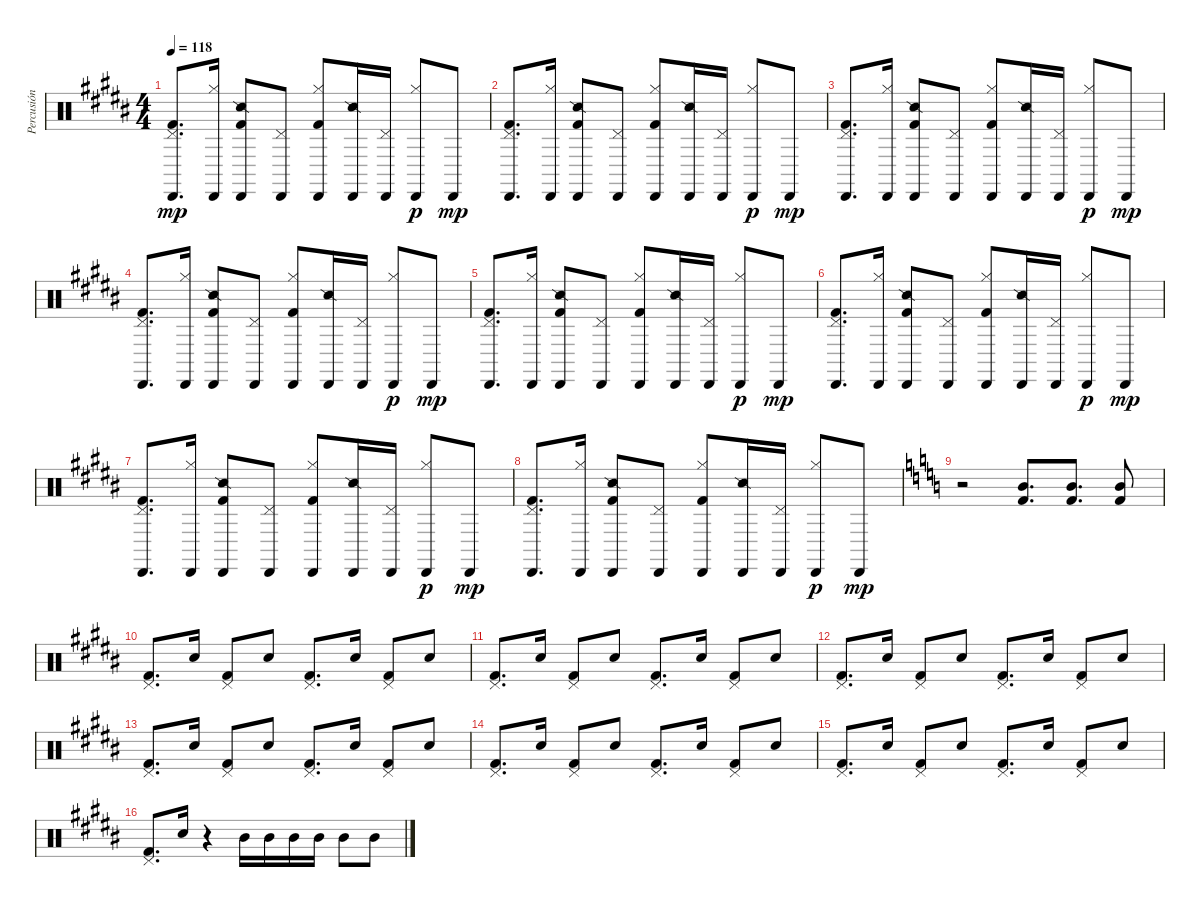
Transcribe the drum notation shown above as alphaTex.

\track ("Percusión" "Percusión") {instrument percussion}
\staff {score}
\articulation defaults
\ts (4 4)
\tempo 118
\clef neutral
\ks b
("Cabasa (hit)" "Pedal Hi-Hat (hit)" "Kick (hit) 2").8{d dy mp} ("Cabasa (hit)" "Hi-Hat (closed)").16 ("Cabasa (hit)" "Snare (side stick) 2" "Kick (hit) 2").8 ("Cabasa (hit)" "Pedal Hi-Hat (hit)").8 ("Cabasa (hit)" "Hi-Hat (closed)" "Kick (hit) 2").8 ("Cabasa (hit)" "Snare (side stick) 2").16 ("Cabasa (hit)" "Pedal Hi-Hat (hit)").16 ("Cabasa (hit)" "Hi-Hat (closed)").8{dy p} "Cabasa (hit)".8{dy mp} |
("Cabasa (hit)" "Pedal Hi-Hat (hit)" "Kick (hit) 2").8{d} ("Cabasa (hit)" "Hi-Hat (closed)").16 ("Cabasa (hit)" "Snare (side stick) 2" "Kick (hit) 2").8 ("Cabasa (hit)" "Pedal Hi-Hat (hit)").8 ("Cabasa (hit)" "Hi-Hat (closed)" "Kick (hit) 2").8 ("Cabasa (hit)" "Snare (side stick) 2").16 ("Cabasa (hit)" "Pedal Hi-Hat (hit)").16 ("Cabasa (hit)" "Hi-Hat (closed)").8{dy p} "Cabasa (hit)".8{dy mp} |
("Cabasa (hit)" "Pedal Hi-Hat (hit)" "Kick (hit) 2").8{d} ("Cabasa (hit)" "Hi-Hat (closed)").16 ("Cabasa (hit)" "Snare (side stick) 2" "Kick (hit) 2").8 ("Cabasa (hit)" "Pedal Hi-Hat (hit)").8 ("Cabasa (hit)" "Hi-Hat (closed)" "Kick (hit) 2").8 ("Cabasa (hit)" "Snare (side stick) 2").16 ("Cabasa (hit)" "Pedal Hi-Hat (hit)").16 ("Cabasa (hit)" "Hi-Hat (closed)").8{dy p} "Cabasa (hit)".8{dy mp} |
("Cabasa (hit)" "Pedal Hi-Hat (hit)" "Kick (hit) 2").8{d} ("Cabasa (hit)" "Hi-Hat (closed)").16 ("Cabasa (hit)" "Snare (side stick) 2" "Kick (hit) 2").8 ("Cabasa (hit)" "Pedal Hi-Hat (hit)").8 ("Cabasa (hit)" "Hi-Hat (closed)" "Kick (hit) 2").8 ("Cabasa (hit)" "Snare (side stick) 2").16 ("Cabasa (hit)" "Pedal Hi-Hat (hit)").16 ("Cabasa (hit)" "Hi-Hat (closed)").8{dy p} "Cabasa (hit)".8{dy mp} |
("Cabasa (hit)" "Pedal Hi-Hat (hit)" "Kick (hit) 2").8{d} ("Cabasa (hit)" "Hi-Hat (closed)").16 ("Cabasa (hit)" "Snare (side stick) 2" "Kick (hit) 2").8 ("Cabasa (hit)" "Pedal Hi-Hat (hit)").8 ("Cabasa (hit)" "Hi-Hat (closed)" "Kick (hit) 2").8 ("Cabasa (hit)" "Snare (side stick) 2").16 ("Cabasa (hit)" "Pedal Hi-Hat (hit)").16 ("Cabasa (hit)" "Hi-Hat (closed)").8{dy p} "Cabasa (hit)".8{dy mp} |
("Cabasa (hit)" "Pedal Hi-Hat (hit)" "Kick (hit) 2").8{d} ("Cabasa (hit)" "Hi-Hat (closed)").16 ("Cabasa (hit)" "Snare (side stick) 2" "Kick (hit) 2").8 ("Cabasa (hit)" "Pedal Hi-Hat (hit)").8 ("Cabasa (hit)" "Hi-Hat (closed)" "Kick (hit) 2").8 ("Cabasa (hit)" "Snare (side stick) 2").16 ("Cabasa (hit)" "Pedal Hi-Hat (hit)").16 ("Cabasa (hit)" "Hi-Hat (closed)").8{dy p} "Cabasa (hit)".8{dy mp} |
("Cabasa (hit)" "Pedal Hi-Hat (hit)" "Kick (hit) 2").8{d} ("Cabasa (hit)" "Hi-Hat (closed)").16 ("Cabasa (hit)" "Snare (side stick) 2" "Kick (hit) 2").8 ("Cabasa (hit)" "Pedal Hi-Hat (hit)").8 ("Cabasa (hit)" "Hi-Hat (closed)" "Kick (hit) 2").8 ("Cabasa (hit)" "Snare (side stick) 2").16 ("Cabasa (hit)" "Pedal Hi-Hat (hit)").16 ("Cabasa (hit)" "Hi-Hat (closed)").8{dy p} "Cabasa (hit)".8{dy mp} |
("Cabasa (hit)" "Pedal Hi-Hat (hit)" "Kick (hit) 2").8{d} ("Cabasa (hit)" "Hi-Hat (closed)").16 ("Cabasa (hit)" "Snare (side stick) 2" "Kick (hit) 2").8 ("Cabasa (hit)" "Pedal Hi-Hat (hit)").8 ("Cabasa (hit)" "Hi-Hat (closed)" "Kick (hit) 2").8 ("Cabasa (hit)" "Snare (side stick) 2").16 ("Cabasa (hit)" "Pedal Hi-Hat (hit)").16 ("Cabasa (hit)" "Hi-Hat (closed)").8{dy p} "Cabasa (hit)".8{dy mp} |
\ks c
r.2 ("Mid Tom (hit)" "Kick (hit) 2").8{d} ("Mid Tom (hit)" "Kick (hit) 2").8{d} ("Mid Tom (hit)" "Kick (hit) 2").8 |
\ks b
("Pedal Hi-Hat (hit)" "Kick (hit) 2").8{d} "Snare (hit) 2".16 ("Pedal Hi-Hat (hit)" "Kick (hit) 2").8 "Snare (hit) 2".8 ("Pedal Hi-Hat (hit)" "Kick (hit) 2").8{d} "Snare (hit) 2".16 ("Pedal Hi-Hat (hit)" "Kick (hit) 2").8 "Snare (hit) 2".8 |
("Pedal Hi-Hat (hit)" "Kick (hit) 2").8{d} "Snare (hit) 2".16 ("Pedal Hi-Hat (hit)" "Kick (hit) 2").8 "Snare (hit) 2".8 ("Pedal Hi-Hat (hit)" "Kick (hit) 2").8{d} "Snare (hit) 2".16 ("Pedal Hi-Hat (hit)" "Kick (hit) 2").8 "Snare (hit) 2".8 |
("Pedal Hi-Hat (hit)" "Kick (hit) 2").8{d} "Snare (hit) 2".16 ("Pedal Hi-Hat (hit)" "Kick (hit) 2").8 "Snare (hit) 2".8 ("Pedal Hi-Hat (hit)" "Kick (hit) 2").8{d} "Snare (hit) 2".16 ("Pedal Hi-Hat (hit)" "Kick (hit) 2").8 "Snare (hit) 2".8 |
("Pedal Hi-Hat (hit)" "Kick (hit) 2").8{d} "Snare (hit) 2".16 ("Pedal Hi-Hat (hit)" "Kick (hit) 2").8 "Snare (hit) 2".8 ("Pedal Hi-Hat (hit)" "Kick (hit) 2").8{d} "Snare (hit) 2".16 ("Pedal Hi-Hat (hit)" "Kick (hit) 2").8 "Snare (hit) 2".8 |
("Pedal Hi-Hat (hit)" "Kick (hit) 2").8{d} "Snare (hit) 2".16 ("Pedal Hi-Hat (hit)" "Kick (hit) 2").8 "Snare (hit) 2".8 ("Pedal Hi-Hat (hit)" "Kick (hit) 2").8{d} "Snare (hit) 2".16 ("Pedal Hi-Hat (hit)" "Kick (hit) 2").8 "Snare (hit) 2".8 |
("Pedal Hi-Hat (hit)" "Kick (hit) 2").8{d} "Snare (hit) 2".16 ("Pedal Hi-Hat (hit)" "Kick (hit) 2").8 "Snare (hit) 2".8 ("Pedal Hi-Hat (hit)" "Kick (hit) 2").8{d} "Snare (hit) 2".16 ("Pedal Hi-Hat (hit)" "Kick (hit) 2").8 "Snare (hit) 2".8 |
("Pedal Hi-Hat (hit)" "Kick (hit) 2").8{d} "Snare (hit) 2".16 r.4 "Mid Tom (hit)".16 "Mid Tom (hit)".16 "Mid Tom (hit)".16 "Mid Tom (hit)".16 "Mid Tom (hit)".8 "Mid Tom (hit)".8
